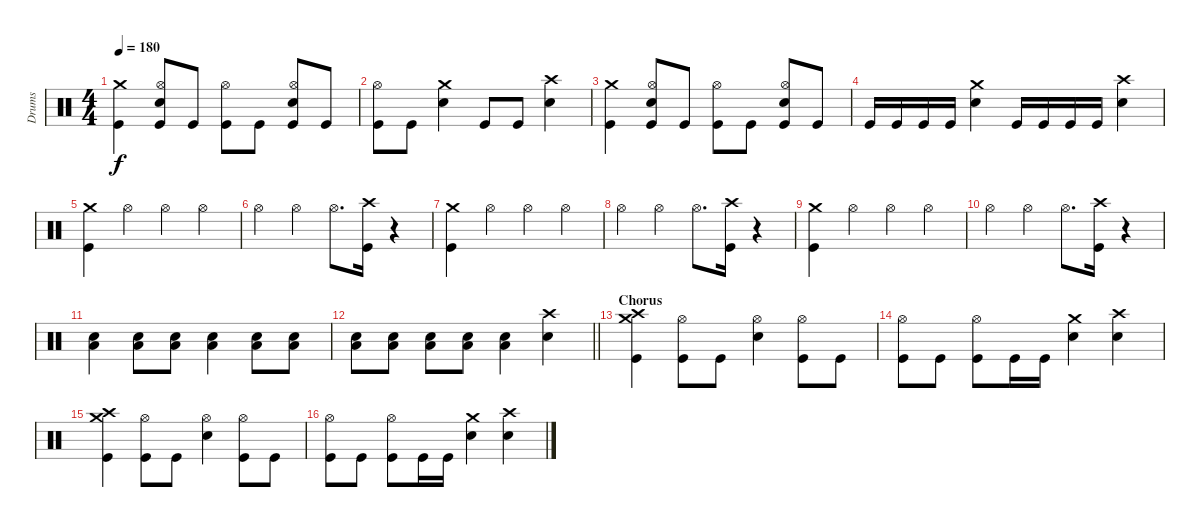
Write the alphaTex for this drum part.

\track ("Drums" "Drums") {instrument percussion}
\staff {score}
\articulation defaults
\ts (4 4)
\tempo 180
\clef neutral
\ks c
("Crash medium (hit)" "Kick (hit)").4{dy f} ("Hi-Hat (open)" "Electric Snare (hit)" "Kick (hit)").8 "Kick (hit)".8 ("Hi-Hat (open)" "Kick (hit)").8 "Kick (hit)".8 ("Hi-Hat (open)" "Electric Snare (hit)" "Kick (hit)").8 "Kick (hit)".8 |
("Hi-Hat (open)" "Kick (hit)").8 "Kick (hit)".8 ("Crash medium (hit)" "Electric Snare (hit)").4 "Kick (hit)".8 "Kick (hit)".8 ("Crash high (hit)" "Electric Snare (hit)").4 |
("Crash medium (hit)" "Kick (hit)").4 ("Hi-Hat (open)" "Electric Snare (hit)" "Kick (hit)").8 "Kick (hit)".8 ("Hi-Hat (open)" "Kick (hit)").8 "Kick (hit)".8 ("Hi-Hat (open)" "Electric Snare (hit)" "Kick (hit)").8 "Kick (hit)".8 |
"Kick (hit)".16 "Kick (hit)".16 "Kick (hit)".16 "Kick (hit)".16 ("Crash medium (hit)" "Electric Snare (hit)").4 "Kick (hit)".16 "Kick (hit)".16 "Kick (hit)".16 "Kick (hit)".16 ("Crash high (hit)" "Electric Snare (hit)").4 |
("Crash medium (hit)" "Kick (hit)").4 "Hi-Hat (open)".4 "Hi-Hat (open)".4 "Hi-Hat (open)".4 |
"Hi-Hat (open)".4 "Hi-Hat (open)".4 "Hi-Hat (open)".8{d} ("Crash high (hit)" "Kick (hit)").16 r.4 |
("Crash medium (hit)" "Kick (hit)").4 "Hi-Hat (open)".4 "Hi-Hat (open)".4 "Hi-Hat (open)".4 |
"Hi-Hat (open)".4 "Hi-Hat (open)".4 "Hi-Hat (open)".8{d} ("Crash high (hit)" "Kick (hit)").16 r.4 |
("Crash medium (hit)" "Kick (hit)").4 "Hi-Hat (open)".4 "Hi-Hat (open)".4 "Hi-Hat (open)".4 |
"Hi-Hat (open)".4 "Hi-Hat (open)".4 "Hi-Hat (open)".8{d} ("Crash high (hit)" "Kick (hit)").16 r.4 |
("Low Tom (hit)" "Electric Snare (hit)").4 ("Low Tom (hit)" "Electric Snare (hit)").8 ("Low Tom (hit)" "Electric Snare (hit)").8 ("Low Tom (hit)" "Electric Snare (hit)").4 ("Low Tom (hit)" "Electric Snare (hit)").8 ("Low Tom (hit)" "Electric Snare (hit)").8 |
\barLineRight lightlight
("Low Tom (hit)" "Electric Snare (hit)").8 ("Low Tom (hit)" "Electric Snare (hit)").8 ("Low Tom (hit)" "Electric Snare (hit)").8 ("Low Tom (hit)" "Electric Snare (hit)").8 ("Low Tom (hit)" "Electric Snare (hit)").4 ("Crash high (hit)" "Electric Snare (hit)").4 |
\section ("" "Chorus")
("Crash medium (hit)" "Crash high (hit)" "Kick (hit)").4 ("Hi-Hat (open)" "Kick (hit)").8 "Kick (hit)".8 ("Hi-Hat (open)" "Electric Snare (hit)").4 ("Hi-Hat (open)" "Kick (hit)").8 "Kick (hit)".8 |
("Hi-Hat (open)" "Kick (hit)").8 "Kick (hit)".8 ("Hi-Hat (open)" "Kick (hit)").8 "Kick (hit)".16 "Kick (hit)".16 ("Crash medium (hit)" "Electric Snare (hit)").4 ("Crash high (hit)" "Electric Snare (hit)").4 |
("Crash medium (hit)" "Crash high (hit)" "Kick (hit)").4 ("Hi-Hat (open)" "Kick (hit)").8 "Kick (hit)".8 ("Hi-Hat (open)" "Electric Snare (hit)").4 ("Hi-Hat (open)" "Kick (hit)").8 "Kick (hit)".8 |
("Hi-Hat (open)" "Kick (hit)").8 "Kick (hit)".8 ("Hi-Hat (open)" "Kick (hit)").8 "Kick (hit)".16 "Kick (hit)".16 ("Crash medium (hit)" "Electric Snare (hit)").4 ("Crash high (hit)" "Electric Snare (hit)").4
